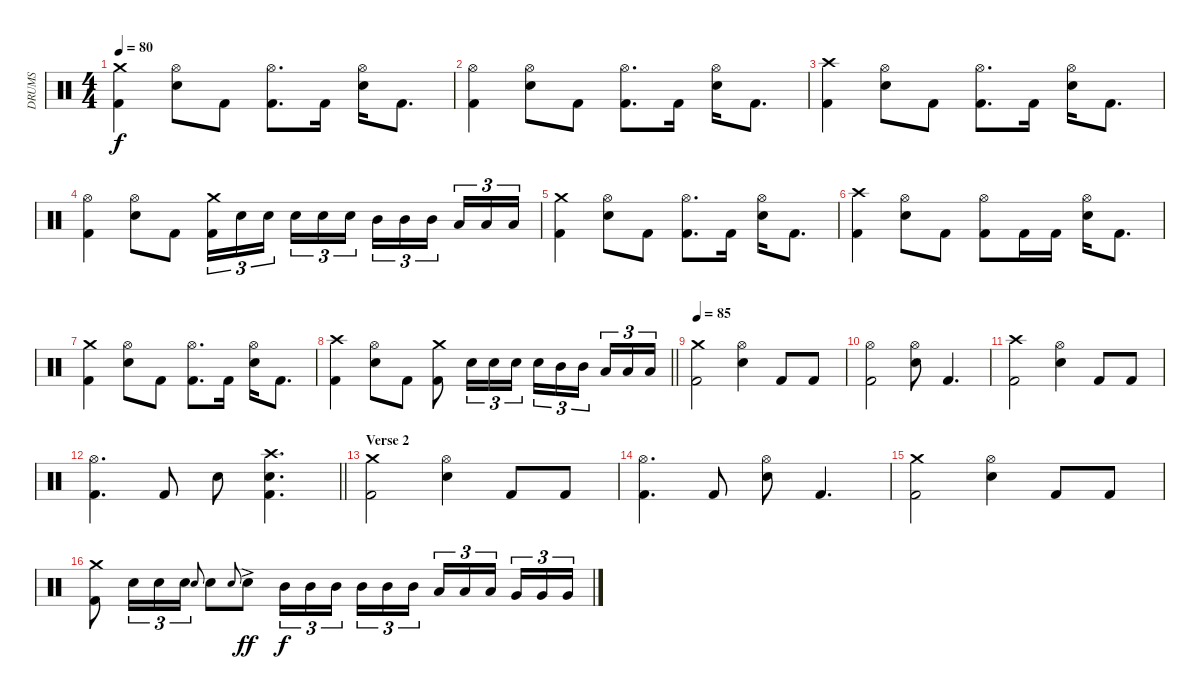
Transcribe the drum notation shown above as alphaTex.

\track ("DRUMS" "DRUMS") {instrument percussion}
\staff {score}
\articulation defaults
\ts (4 4)
\tempo 80
\clef neutral
\ks c
("Crash medium (hit)" "Kick (hit) 2").4{dy f} ("Hi-Hat (open)" "Snare (hit) 2").8 "Kick (hit) 2".8 ("Hi-Hat (open)" "Kick (hit) 2").8{d} "Kick (hit) 2".16 ("Hi-Hat (open)" "Snare (hit) 2").16 "Kick (hit) 2".8{d} |
("Hi-Hat (open)" "Kick (hit) 2").4 ("Hi-Hat (open)" "Snare (hit) 2").8 "Kick (hit) 2".8 ("Hi-Hat (open)" "Kick (hit) 2").8{d} "Kick (hit) 2".16 ("Hi-Hat (open)" "Snare (hit) 2").16 "Kick (hit) 2".8{d} |
("Crash high (hit)" "Kick (hit) 2").4 ("Hi-Hat (open)" "Snare (hit) 2").8 "Kick (hit) 2".8 ("Hi-Hat (open)" "Kick (hit) 2").8{d} "Kick (hit) 2".16 ("Hi-Hat (open)" "Snare (hit) 2").16 "Kick (hit) 2".8{d} |
("Hi-Hat (open)" "Kick (hit) 2").4 ("Hi-Hat (open)" "Snare (hit) 2").8 "Kick (hit) 2".8 ("Crash medium (hit)" "Kick (hit) 2").16{tu (3 2)} "Snare (hit) 2".16{tu (3 2)} "Snare (hit) 2".16{tu (3 2) beam splitsecondary} "Snare (hit) 2".16{tu (3 2)} "Snare (hit) 2".16{tu (3 2)} "Snare (hit) 2".16{tu (3 2)} "Mid Tom (hit)".16{tu (3 2)} "Mid Tom (hit)".16{tu (3 2)} "Mid Tom (hit)".16{tu (3 2) beam splitsecondary} "Low Tom (hit)".16{tu (3 2)} "Low Tom (hit)".16{tu (3 2)} "Low Tom (hit)".16{tu (3 2)} |
("Crash medium (hit)" "Kick (hit) 2").4 ("Hi-Hat (open)" "Snare (hit) 2").8 "Kick (hit) 2".8 ("Hi-Hat (open)" "Kick (hit) 2").8{d} "Kick (hit) 2".16 ("Hi-Hat (open)" "Snare (hit) 2").16 "Kick (hit) 2".8{d} |
("Crash high (hit)" "Kick (hit) 2").4 ("Hi-Hat (open)" "Snare (hit) 2").8 "Kick (hit) 2".8 ("Hi-Hat (open)" "Kick (hit) 2").8 "Kick (hit) 2".16 "Kick (hit) 2".16 ("Hi-Hat (open)" "Snare (hit) 2").16 "Kick (hit) 2".8{d} |
("Crash medium (hit)" "Kick (hit) 2").4 ("Hi-Hat (open)" "Snare (hit) 2").8 "Kick (hit) 2".8 ("Hi-Hat (open)" "Kick (hit) 2").8{d} "Kick (hit) 2".16 ("Hi-Hat (open)" "Snare (hit) 2").16 "Kick (hit) 2".8{d} |
\barLineRight lightlight
("Crash high (hit)" "Kick (hit) 2").4 ("Hi-Hat (open)" "Snare (hit) 2").8 "Kick (hit) 2".8 ("Crash medium (hit)" "Kick (hit) 2").8 "Snare (hit) 2".16{tu (3 2)} "Snare (hit) 2".16{tu (3 2)} "Snare (hit) 2".16{tu (3 2)} "Snare (hit) 2".16{tu (3 2)} "Mid Tom (hit)".16{tu (3 2)} "Mid Tom (hit)".16{tu (3 2) beam splitsecondary} "Low Tom (hit)".16{tu (3 2)} "Low Tom (hit)".16{tu (3 2)} "Low Tom (hit)".16{tu (3 2)} |
\tempo 85
("Crash medium (hit)" "Kick (hit) 2").2 ("Hi-Hat (open)" "Snare (hit) 2").4 "Kick (hit) 2".8 "Kick (hit) 2".8 |
("Hi-Hat (open)" "Kick (hit) 2").2 ("Hi-Hat (open)" "Snare (hit) 2").8 "Kick (hit) 2".4{d} |
("Crash high (hit)" "Kick (hit) 2").2 ("Hi-Hat (open)" "Snare (hit) 2").4 "Kick (hit) 2".8 "Kick (hit) 2".8 |
\barLineRight lightlight
("Hi-Hat (open)" "Kick (hit) 2").4{d} "Kick (hit) 2".8 "Snare (hit) 2".8 ("Crash high (hit)" "Snare (hit) 2" "Kick (hit) 2").4{d} |
\section ("" "Verse 2")
("Crash medium (hit)" "Kick (hit) 2").2 ("Hi-Hat (open)" "Snare (hit) 2").4 "Kick (hit) 2".8 "Kick (hit) 2".8 |
("Hi-Hat (open)" "Kick (hit) 2").4{d} "Kick (hit) 2".8 ("Hi-Hat (open)" "Snare (hit) 2").8 "Kick (hit) 2".4{d} |
("Crash medium (hit)" "Kick (hit) 2").2 ("Hi-Hat (open)" "Snare (hit) 2").4 "Kick (hit) 2".8 "Kick (hit) 2".8 |
("Crash medium (hit)" "Kick (hit) 2").8 "Snare (hit) 2".16{tu (3 2)} "Snare (hit) 2".16{tu (3 2)} "Snare (hit) 2".16{tu (3 2)} "Snare (hit) 2".8{gr onbeat} "Snare (hit) 2".8 "Snare (hit) 2".8{gr onbeat} "Snare (hit) 2"{ac}.8{dy ff} "Mid Tom (hit)".16{tu (3 2) dy f} "Mid Tom (hit)".16{tu (3 2)} "Mid Tom (hit)".16{tu (3 2) beam splitsecondary} "Mid Tom (hit)".16{tu (3 2)} "Mid Tom (hit)".16{tu (3 2)} "Mid Tom (hit)".16{tu (3 2)} "Low Tom (hit)".16{tu (3 2)} "Low Tom (hit)".16{tu (3 2)} "Low Tom (hit)".16{tu (3 2) beam splitsecondary} "Very Low Tom (hit)".16{tu (3 2)} "Very Low Tom (hit)".16{tu (3 2)} "Very Low Tom (hit)".16{tu (3 2)}
